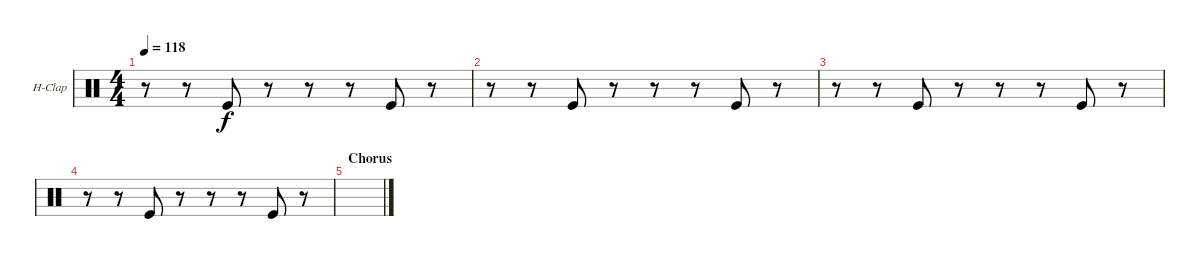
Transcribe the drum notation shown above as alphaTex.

\defaultSystemsLayout 4
\bracketExtendMode groupsimilarinstruments
\firstSystemTrackNameOrientation horizontal
\otherSystemsTrackNameOrientation horizontal
\track ("Hand Clap" "H-Clap") {instrument percussion}
\staff {score}
\articulation defaults
\ts (4 4)
\tempo 118
\clef neutral
\ks c
r.8{dy f} r.8 "Kick (hit)".8 r.8 r.8 r.8 "Kick (hit)".8 r.8 |
r.8 r.8 "Kick (hit)".8 r.8 r.8 r.8 "Kick (hit)".8 r.8 |
r.8 r.8 "Kick (hit)".8 r.8 r.8 r.8 "Kick (hit)".8 r.8 |
r.8 r.8 "Kick (hit)".8 r.8 r.8 r.8 "Kick (hit)".8 r.8 |
\section ("" "Chorus")
